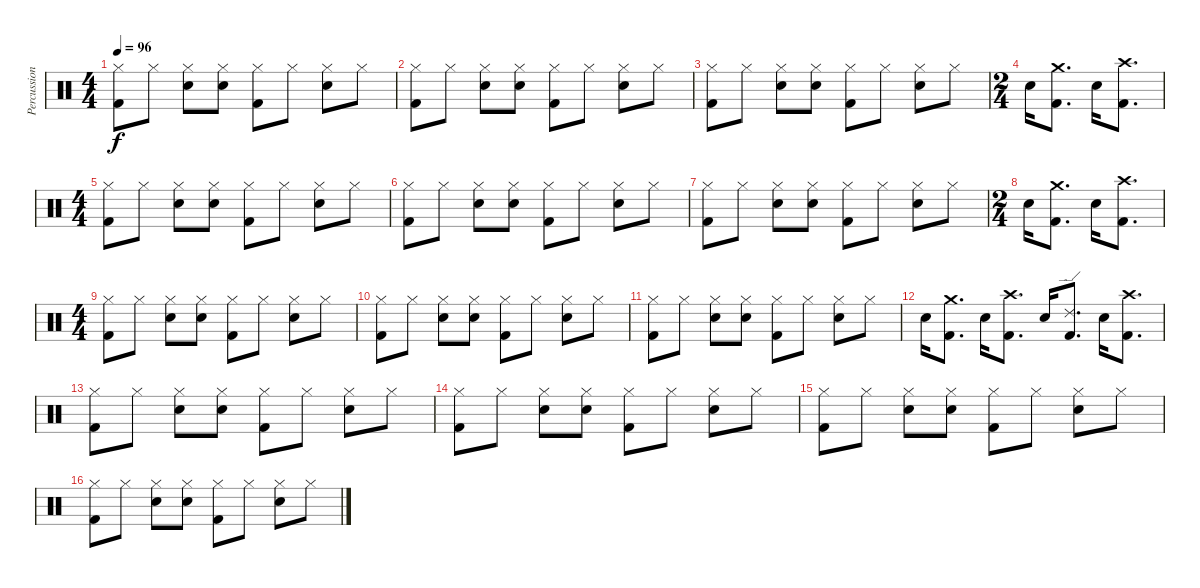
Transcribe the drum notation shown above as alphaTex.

\track ("Percussion" "Percussion") {instrument percussion}
\staff {score}
\articulation defaults
\ts (4 4)
\tempo 96
\clef neutral
\ks c
("Hi-Hat (closed)" "Kick (hit) 2").8{dy f} "Hi-Hat (closed)".8 ("Hi-Hat (closed)" "Snare (hit) 2").8 ("Hi-Hat (closed)" "Snare (hit) 2").8 ("Hi-Hat (closed)" "Kick (hit) 2").8 "Hi-Hat (closed)".8 ("Hi-Hat (closed)" "Snare (hit) 2").8 "Hi-Hat (closed)".8 |
("Hi-Hat (closed)" "Kick (hit) 2").8 "Hi-Hat (closed)".8 ("Hi-Hat (closed)" "Snare (hit) 2").8 ("Hi-Hat (closed)" "Snare (hit) 2").8 ("Hi-Hat (closed)" "Kick (hit) 2").8 "Hi-Hat (closed)".8 ("Hi-Hat (closed)" "Snare (hit) 2").8 "Hi-Hat (closed)".8 |
("Hi-Hat (closed)" "Kick (hit) 2").8 "Hi-Hat (closed)".8 ("Hi-Hat (closed)" "Snare (hit) 2").8 ("Hi-Hat (closed)" "Snare (hit) 2").8 ("Hi-Hat (closed)" "Kick (hit) 2").8 "Hi-Hat (closed)".8 ("Hi-Hat (closed)" "Snare (hit) 2").8 "Hi-Hat (closed)".8 |
\ts (2 4)
"Snare (hit) 2".16 ("Crash medium (hit)" "Kick (hit) 2").8{d} "Snare (hit) 2".16 ("Crash high (hit)" "Kick (hit) 2").8{d} |
\ts (4 4)
("Hi-Hat (closed)" "Kick (hit) 2").8 "Hi-Hat (closed)".8 ("Hi-Hat (closed)" "Snare (hit) 2").8 ("Hi-Hat (closed)" "Snare (hit) 2").8 ("Hi-Hat (closed)" "Kick (hit) 2").8 "Hi-Hat (closed)".8 ("Hi-Hat (closed)" "Snare (hit) 2").8 "Hi-Hat (closed)".8 |
("Hi-Hat (closed)" "Kick (hit) 2").8 "Hi-Hat (closed)".8 ("Hi-Hat (closed)" "Snare (hit) 2").8 ("Hi-Hat (closed)" "Snare (hit) 2").8 ("Hi-Hat (closed)" "Kick (hit) 2").8 "Hi-Hat (closed)".8 ("Hi-Hat (closed)" "Snare (hit) 2").8 "Hi-Hat (closed)".8 |
("Hi-Hat (closed)" "Kick (hit) 2").8 "Hi-Hat (closed)".8 ("Hi-Hat (closed)" "Snare (hit) 2").8 ("Hi-Hat (closed)" "Snare (hit) 2").8 ("Hi-Hat (closed)" "Kick (hit) 2").8 "Hi-Hat (closed)".8 ("Hi-Hat (closed)" "Snare (hit) 2").8 "Hi-Hat (closed)".8 |
\ts (2 4)
"Snare (hit) 2".16 ("Crash medium (hit)" "Kick (hit) 2").8{d} "Snare (hit) 2".16 ("Crash high (hit)" "Kick (hit) 2").8{d} |
\ts (4 4)
("Hi-Hat (closed)" "Kick (hit) 2").8 "Hi-Hat (closed)".8 ("Hi-Hat (closed)" "Snare (hit) 2").8 ("Hi-Hat (closed)" "Snare (hit) 2").8 ("Hi-Hat (closed)" "Kick (hit) 2").8 "Hi-Hat (closed)".8 ("Hi-Hat (closed)" "Snare (hit) 2").8 "Hi-Hat (closed)".8 |
("Hi-Hat (closed)" "Kick (hit) 2").8 "Hi-Hat (closed)".8 ("Hi-Hat (closed)" "Snare (hit) 2").8 ("Hi-Hat (closed)" "Snare (hit) 2").8 ("Hi-Hat (closed)" "Kick (hit) 2").8 "Hi-Hat (closed)".8 ("Hi-Hat (closed)" "Snare (hit) 2").8 "Hi-Hat (closed)".8 |
("Hi-Hat (closed)" "Kick (hit) 2").8 "Hi-Hat (closed)".8 ("Hi-Hat (closed)" "Snare (hit) 2").8 ("Hi-Hat (closed)" "Snare (hit) 2").8 ("Hi-Hat (closed)" "Kick (hit) 2").8 "Hi-Hat (closed)".8 ("Hi-Hat (closed)" "Snare (hit) 2").8 "Hi-Hat (closed)".8 |
"Snare (hit) 2".16 ("Crash medium (hit)" "Kick (hit) 2").8{d} "Snare (hit) 2".16 ("Crash high (hit)" "Kick (hit) 2").8{d} "Snare (hit) 2".16 ("Ride (edge) 2" "Kick (hit) 2").8{d} "Snare (hit) 2".16 ("Crash high (hit)" "Kick (hit) 2").8{d} |
("Hi-Hat (closed)" "Kick (hit) 2").8 "Hi-Hat (closed)".8 ("Hi-Hat (closed)" "Snare (hit) 2").8 ("Hi-Hat (closed)" "Snare (hit) 2").8 ("Hi-Hat (closed)" "Kick (hit) 2").8 "Hi-Hat (closed)".8 ("Hi-Hat (closed)" "Snare (hit) 2").8 "Hi-Hat (closed)".8 |
("Hi-Hat (closed)" "Kick (hit) 2").8 "Hi-Hat (closed)".8 ("Hi-Hat (closed)" "Snare (hit) 2").8 ("Hi-Hat (closed)" "Snare (hit) 2").8 ("Hi-Hat (closed)" "Kick (hit) 2").8 "Hi-Hat (closed)".8 ("Hi-Hat (closed)" "Snare (hit) 2").8 "Hi-Hat (closed)".8 |
("Hi-Hat (closed)" "Kick (hit) 2").8 "Hi-Hat (closed)".8 ("Hi-Hat (closed)" "Snare (hit) 2").8 ("Hi-Hat (closed)" "Snare (hit) 2").8 ("Hi-Hat (closed)" "Kick (hit) 2").8 "Hi-Hat (closed)".8 ("Hi-Hat (closed)" "Snare (hit) 2").8 "Hi-Hat (closed)".8 |
("Hi-Hat (closed)" "Kick (hit) 2").8 "Hi-Hat (closed)".8 ("Hi-Hat (closed)" "Snare (hit) 2").8 ("Hi-Hat (closed)" "Snare (hit) 2").8 ("Hi-Hat (closed)" "Kick (hit) 2").8 "Hi-Hat (closed)".8 ("Hi-Hat (closed)" "Snare (hit) 2").8 "Hi-Hat (closed)".8
